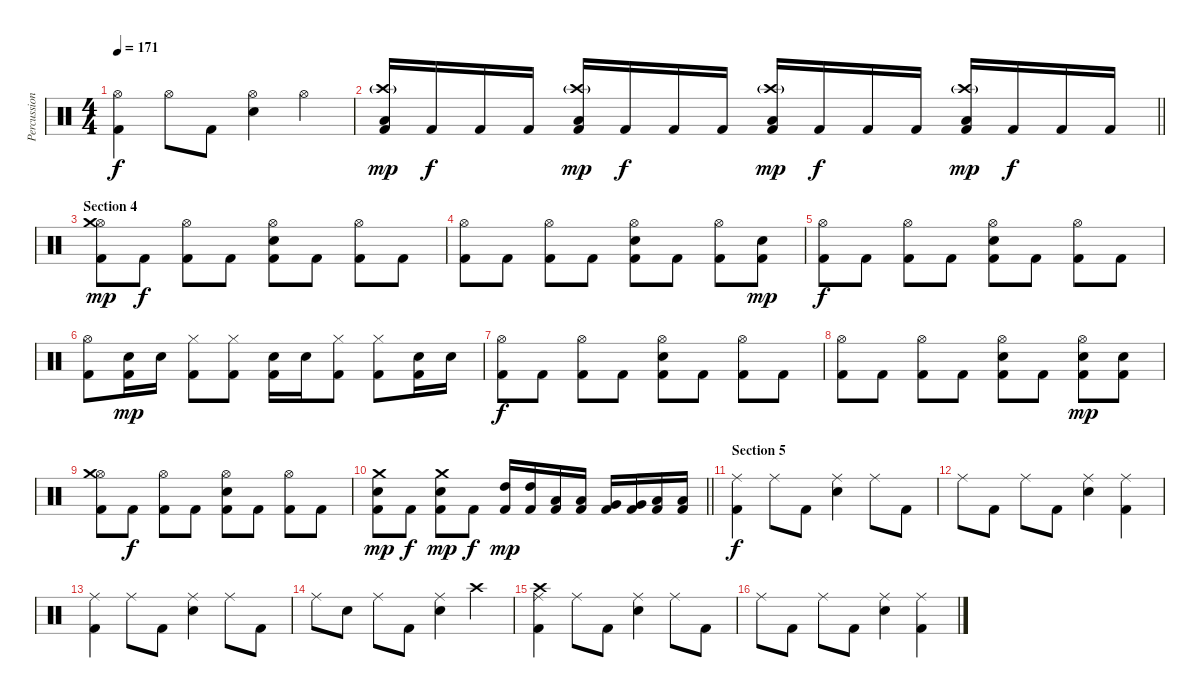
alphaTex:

\track ("Percussion" "Percussion") {instrument percussion}
\staff {score}
\articulation defaults
\ts (4 4)
\tempo 171
\clef neutral
\ks c
("Hi-Hat (open)" "Kick (hit) 2").4{dy f} "Hi-Hat (open)".8 "Kick (hit) 2".8 ("Hi-Hat (open)" "Snare (hit) 2").4 "Hi-Hat (open)".4 |
\barLineRight lightlight
("Crash high (hit)"{g} "Low Floor Tom (hit)" "Kick (hit) 2").16{dy mp} "Kick (hit) 2".16{dy f} "Kick (hit) 2".16 "Kick (hit) 2".16 ("Crash high (hit)"{g} "Low Floor Tom (hit)" "Kick (hit) 2").16{dy mp} "Kick (hit) 2".16{dy f} "Kick (hit) 2".16 "Kick (hit) 2".16 ("Crash high (hit)"{g} "Low Floor Tom (hit)" "Kick (hit) 2").16{dy mp} "Kick (hit) 2".16{dy f} "Kick (hit) 2".16 "Kick (hit) 2".16 ("Crash high (hit)"{g} "Low Floor Tom (hit)" "Kick (hit) 2").16{dy mp} "Kick (hit) 2".16{dy f} "Kick (hit) 2".16 "Kick (hit) 2".16 |
\section ("" "Section 4")
("Hi-Hat (open)" "Crash medium (hit)" "Kick (hit) 2").8{dy mp} "Kick (hit) 2".8{dy f} ("Hi-Hat (open)" "Kick (hit) 2").8 "Kick (hit) 2".8 ("Hi-Hat (open)" "Snare (hit) 2" "Kick (hit) 2").8 "Kick (hit) 2".8 ("Hi-Hat (open)" "Kick (hit) 2").8 "Kick (hit) 2".8 |
("Hi-Hat (open)" "Kick (hit) 2").8 "Kick (hit) 2".8 ("Hi-Hat (open)" "Kick (hit) 2").8 "Kick (hit) 2".8 ("Hi-Hat (open)" "Snare (hit) 2" "Kick (hit) 2").8 "Kick (hit) 2".8 ("Hi-Hat (open)" "Kick (hit) 2").8 ("Snare (hit) 2" "Kick (hit) 2").8{dy mp} |
("Hi-Hat (open)" "Kick (hit) 2").8{dy f} "Kick (hit) 2".8 ("Hi-Hat (open)" "Kick (hit) 2").8 "Kick (hit) 2".8 ("Hi-Hat (open)" "Snare (hit) 2" "Kick (hit) 2").8 "Kick (hit) 2".8 ("Hi-Hat (open)" "Kick (hit) 2").8 "Kick (hit) 2".8 |
("Hi-Hat (open)" "Kick (hit) 2").8 ("Snare (hit) 2" "Kick (hit) 2").16{dy mp} "Snare (hit) 2".16 ("Hi-Hat (closed)" "Kick (hit) 2").8 ("Hi-Hat (closed)" "Kick (hit) 2").8 ("Snare (hit) 2" "Kick (hit) 2").16 "Snare (hit) 2".16 ("Hi-Hat (closed)" "Kick (hit) 2").8 ("Hi-Hat (closed)" "Kick (hit) 2").8 ("Snare (hit) 2" "Kick (hit) 2").16 "Snare (hit) 2".16 |
("Hi-Hat (open)" "Kick (hit) 2").8{dy f} "Kick (hit) 2".8 ("Hi-Hat (open)" "Kick (hit) 2").8 "Kick (hit) 2".8 ("Hi-Hat (open)" "Snare (hit) 2" "Kick (hit) 2").8 "Kick (hit) 2".8 ("Hi-Hat (open)" "Kick (hit) 2").8 "Kick (hit) 2".8 |
("Hi-Hat (open)" "Kick (hit) 2").8 "Kick (hit) 2".8 ("Hi-Hat (open)" "Kick (hit) 2").8 "Kick (hit) 2".8 ("Hi-Hat (open)" "Snare (hit) 2" "Kick (hit) 2").8 "Kick (hit) 2".8 ("Hi-Hat (open)" "Snare (hit) 2" "Kick (hit) 2").8{dy mp} ("Snare (hit) 2" "Kick (hit) 2").8 |
("Hi-Hat (open)" "Crash medium (hit)" "Kick (hit) 2").8 "Kick (hit) 2".8{dy f} ("Hi-Hat (open)" "Kick (hit) 2").8 "Kick (hit) 2".8 ("Hi-Hat (open)" "Snare (hit) 2" "Kick (hit) 2").8 "Kick (hit) 2".8 ("Hi-Hat (open)" "Kick (hit) 2").8 "Kick (hit) 2".8 |
\barLineRight lightlight
("Crash medium (hit)" "Snare (hit) 2" "Kick (hit) 2").8{dy mp} "Kick (hit) 2".8{dy f} ("Crash medium (hit)" "Snare (hit) 2" "Kick (hit) 2").8{dy mp} "Kick (hit) 2".8{dy f} ("High Tom (hit)" "Kick (hit) 2").16{dy mp} ("High Tom (hit)" "Kick (hit) 2").16 ("Low Tom (hit)" "Kick (hit) 2").16 ("Low Tom (hit)" "Kick (hit) 2").16 ("Very Low Tom (hit)" "Kick (hit) 2").16 ("Very Low Tom (hit)" "Kick (hit) 2").16 ("Low Floor Tom (hit)" "Kick (hit) 2").16 ("Low Floor Tom (hit)" "Kick (hit) 2").16 |
\section ("" "Section 5")
("Ride (middle)" "Kick (hit) 2").4{dy f} "Ride (middle)".8 "Kick (hit) 2".8 ("Ride (middle)" "Snare (hit) 2").4 "Ride (middle)".8 "Kick (hit) 2".8 |
"Ride (middle)".8 "Kick (hit) 2".8 "Ride (middle)".8 "Kick (hit) 2".8 ("Ride (middle)" "Snare (hit) 2").4 ("Ride (middle)" "Kick (hit) 2").4 |
("Ride (middle)" "Kick (hit) 2").4 "Ride (middle)".8 "Kick (hit) 2".8 ("Ride (middle)" "Snare (hit) 2").4 "Ride (middle)".8 "Kick (hit) 2".8 |
"Ride (middle)".8 "Snare (hit) 2".8 "Ride (middle)".8 "Kick (hit) 2".8 ("Ride (middle)" "Snare (hit) 2").4 "Crash high (hit)".4 |
("Ride (middle)" "Crash high (hit)" "Kick (hit) 2").4 "Ride (middle)".8 "Kick (hit) 2".8 ("Ride (middle)" "Snare (hit) 2").4 "Ride (middle)".8 "Kick (hit) 2".8 |
"Ride (middle)".8 "Kick (hit) 2".8 "Ride (middle)".8 "Kick (hit) 2".8 ("Ride (middle)" "Snare (hit) 2").4 ("Ride (middle)" "Kick (hit) 2").4
